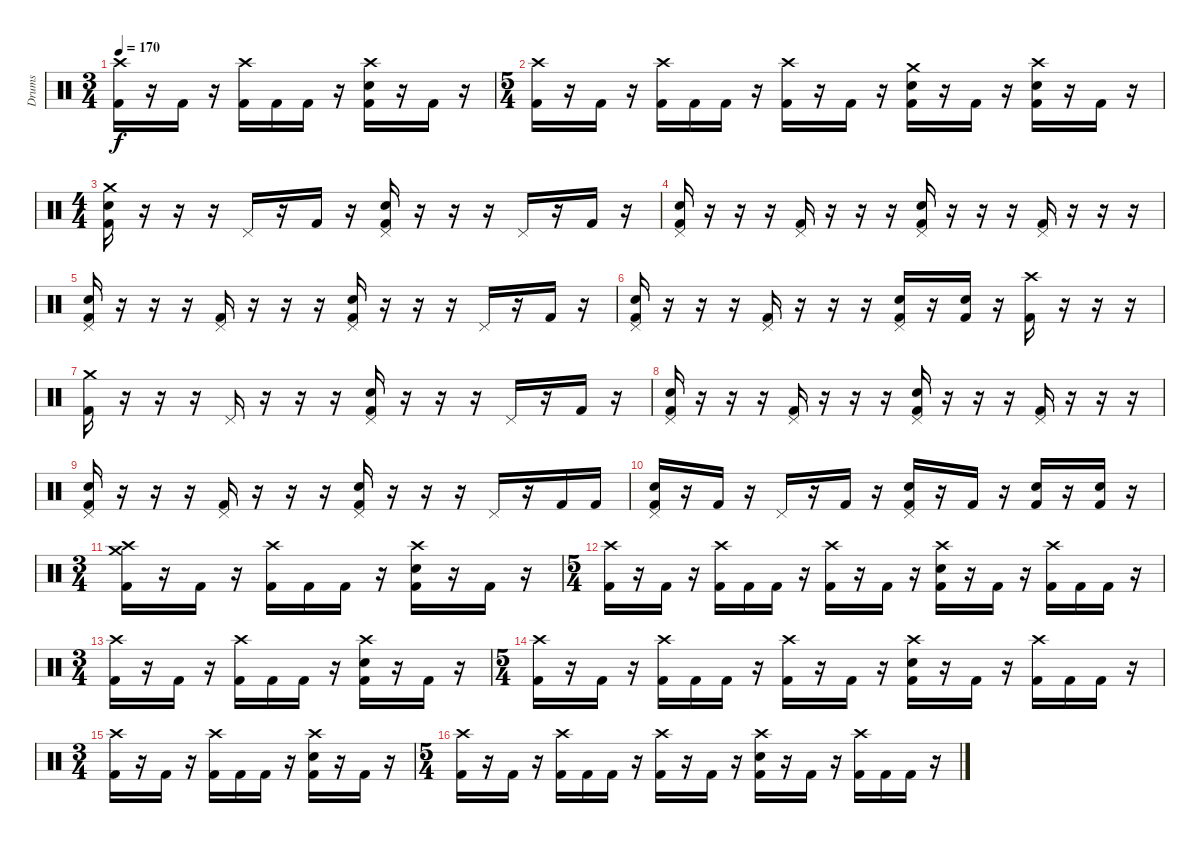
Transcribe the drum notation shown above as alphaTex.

\track ("Drums" "Drums") {instrument percussion}
\staff {score}
\articulation defaults
\ts (3 4)
\tempo 170
\clef neutral
\ks c
("Crash high (hit)" "Kick (hit) 2").16{dy f} r.16 "Kick (hit) 2".16 r.16 ("Crash high (hit)" "Kick (hit) 2").16 "Kick (hit) 2".16 "Kick (hit) 2".16 r.16 ("Crash high (hit)" "Electric Snare (hit)" "Kick (hit) 2").16 r.16 "Kick (hit) 2".16 r.16 |
\ts (5 4)
("Crash high (hit)" "Kick (hit) 2").16 r.16 "Kick (hit) 2".16 r.16 ("Crash high (hit)" "Kick (hit) 2").16 "Kick (hit) 2".16 "Kick (hit) 2".16 r.16 ("Crash high (hit)" "Kick (hit) 2").16 r.16 "Kick (hit) 2".16 r.16 ("Crash medium (hit)" "Electric Snare (hit)" "Kick (hit) 2").16 r.16 "Kick (hit) 2".16 r.16 ("Crash high (hit)" "Electric Snare (hit)" "Kick (hit) 2").16 r.16 "Kick (hit) 2".16 r.16 |
\ts (4 4)
\section ("" "")
("Crash medium (hit)" "Electric Snare (hit)" "Kick (hit) 2").16 r.16 r.16 r.16 "Pedal Hi-Hat (hit)".16 r.16 "Kick (hit) 2".16 r.16 ("Pedal Hi-Hat (hit)" "Electric Snare (hit)" "Kick (hit) 2").16 r.16 r.16 r.16 "Pedal Hi-Hat (hit)".16 r.16 "Kick (hit) 2".16 r.16 |
("Pedal Hi-Hat (hit)" "Electric Snare (hit)" "Kick (hit) 2").16 r.16 r.16 r.16 ("Pedal Hi-Hat (hit)" "Kick (hit) 2").16 r.16 r.16 r.16 ("Pedal Hi-Hat (hit)" "Electric Snare (hit)" "Kick (hit) 2").16 r.16 r.16 r.16 ("Pedal Hi-Hat (hit)" "Kick (hit) 2").16 r.16 r.16 r.16 |
("Pedal Hi-Hat (hit)" "Electric Snare (hit)" "Kick (hit) 2").16 r.16 r.16 r.16 ("Pedal Hi-Hat (hit)" "Kick (hit) 2").16 r.16 r.16 r.16 ("Pedal Hi-Hat (hit)" "Electric Snare (hit)" "Kick (hit) 2").16 r.16 r.16 r.16 "Pedal Hi-Hat (hit)".16 r.16 "Kick (hit) 2".16 r.16 |
("Pedal Hi-Hat (hit)" "Electric Snare (hit)" "Kick (hit) 2").16 r.16 r.16 r.16 ("Pedal Hi-Hat (hit)" "Kick (hit) 2").16 r.16 r.16 r.16 ("Pedal Hi-Hat (hit)" "Electric Snare (hit)" "Kick (hit) 2").16 r.16 ("Electric Snare (hit)" "Kick (hit) 2").16 r.16 ("Crash high (hit)" "Kick (hit) 2").16 r.16 r.16 r.16 |
("Crash medium (hit)" "Kick (hit) 2").16 r.16 r.16 r.16 "Pedal Hi-Hat (hit)".16 r.16 r.16 r.16 ("Pedal Hi-Hat (hit)" "Electric Snare (hit)" "Kick (hit) 2").16 r.16 r.16 r.16 "Pedal Hi-Hat (hit)".16 r.16 "Kick (hit) 2".16 r.16 |
("Pedal Hi-Hat (hit)" "Electric Snare (hit)" "Kick (hit) 2").16 r.16 r.16 r.16 ("Pedal Hi-Hat (hit)" "Kick (hit) 2").16 r.16 r.16 r.16 ("Pedal Hi-Hat (hit)" "Electric Snare (hit)" "Kick (hit) 2").16 r.16 r.16 r.16 ("Pedal Hi-Hat (hit)" "Kick (hit) 2").16 r.16 r.16 r.16 |
("Pedal Hi-Hat (hit)" "Electric Snare (hit)" "Kick (hit) 2").16 r.16 r.16 r.16 ("Pedal Hi-Hat (hit)" "Kick (hit) 2").16 r.16 r.16 r.16 ("Pedal Hi-Hat (hit)" "Electric Snare (hit)" "Kick (hit) 2").16 r.16 r.16 r.16 "Pedal Hi-Hat (hit)".16 r.16 "Kick (hit) 2".16 "Kick (hit) 2".16 |
("Pedal Hi-Hat (hit)" "Electric Snare (hit)" "Kick (hit) 2").16 r.16 "Kick (hit) 2".16 r.16 "Pedal Hi-Hat (hit)".16 r.16 "Kick (hit) 2".16 r.16 ("Pedal Hi-Hat (hit)" "Electric Snare (hit)" "Kick (hit) 2").16 r.16 "Kick (hit) 2".16 r.16 ("Electric Snare (hit)" "Kick (hit) 2").16 r.16 ("Electric Snare (hit)" "Kick (hit) 2").16 r.16 |
\ts (3 4)
\section ("" "")
("Crash medium (hit)" "Crash high (hit)" "Kick (hit) 2").16 r.16 "Kick (hit) 2".16 r.16 ("Crash high (hit)" "Kick (hit) 2").16 "Kick (hit) 2".16 "Kick (hit) 2".16 r.16 ("Crash high (hit)" "Electric Snare (hit)" "Kick (hit) 2").16 r.16 "Kick (hit) 2".16 r.16 |
\ts (5 4)
("Crash high (hit)" "Kick (hit) 2").16 r.16 "Kick (hit) 2".16 r.16 ("Crash high (hit)" "Kick (hit) 2").16 "Kick (hit) 2".16 "Kick (hit) 2".16 r.16 ("Crash high (hit)" "Kick (hit) 2").16 r.16 "Kick (hit) 2".16 r.16 ("Crash high (hit)" "Electric Snare (hit)" "Kick (hit) 2").16 r.16 "Kick (hit) 2".16 r.16 ("Crash high (hit)" "Kick (hit) 2").16 "Kick (hit) 2".16 "Kick (hit) 2".16 r.16 |
\ts (3 4)
("Crash high (hit)" "Kick (hit) 2").16 r.16 "Kick (hit) 2".16 r.16 ("Crash high (hit)" "Kick (hit) 2").16 "Kick (hit) 2".16 "Kick (hit) 2".16 r.16 ("Crash high (hit)" "Electric Snare (hit)" "Kick (hit) 2").16 r.16 "Kick (hit) 2".16 r.16 |
\ts (5 4)
("Crash high (hit)" "Kick (hit) 2").16 r.16 "Kick (hit) 2".16 r.16 ("Crash high (hit)" "Kick (hit) 2").16 "Kick (hit) 2".16 "Kick (hit) 2".16 r.16 ("Crash high (hit)" "Kick (hit) 2").16 r.16 "Kick (hit) 2".16 r.16 ("Crash high (hit)" "Electric Snare (hit)" "Kick (hit) 2").16 r.16 "Kick (hit) 2".16 r.16 ("Crash high (hit)" "Kick (hit) 2").16 "Kick (hit) 2".16 "Kick (hit) 2".16 r.16 |
\ts (3 4)
("Crash high (hit)" "Kick (hit) 2").16 r.16 "Kick (hit) 2".16 r.16 ("Crash high (hit)" "Kick (hit) 2").16 "Kick (hit) 2".16 "Kick (hit) 2".16 r.16 ("Crash high (hit)" "Electric Snare (hit)" "Kick (hit) 2").16 r.16 "Kick (hit) 2".16 r.16 |
\ts (5 4)
("Crash high (hit)" "Kick (hit) 2").16 r.16 "Kick (hit) 2".16 r.16 ("Crash high (hit)" "Kick (hit) 2").16 "Kick (hit) 2".16 "Kick (hit) 2".16 r.16 ("Crash high (hit)" "Kick (hit) 2").16 r.16 "Kick (hit) 2".16 r.16 ("Crash high (hit)" "Electric Snare (hit)" "Kick (hit) 2").16 r.16 "Kick (hit) 2".16 r.16 ("Crash high (hit)" "Kick (hit) 2").16 "Kick (hit) 2".16 "Kick (hit) 2".16 r.16
